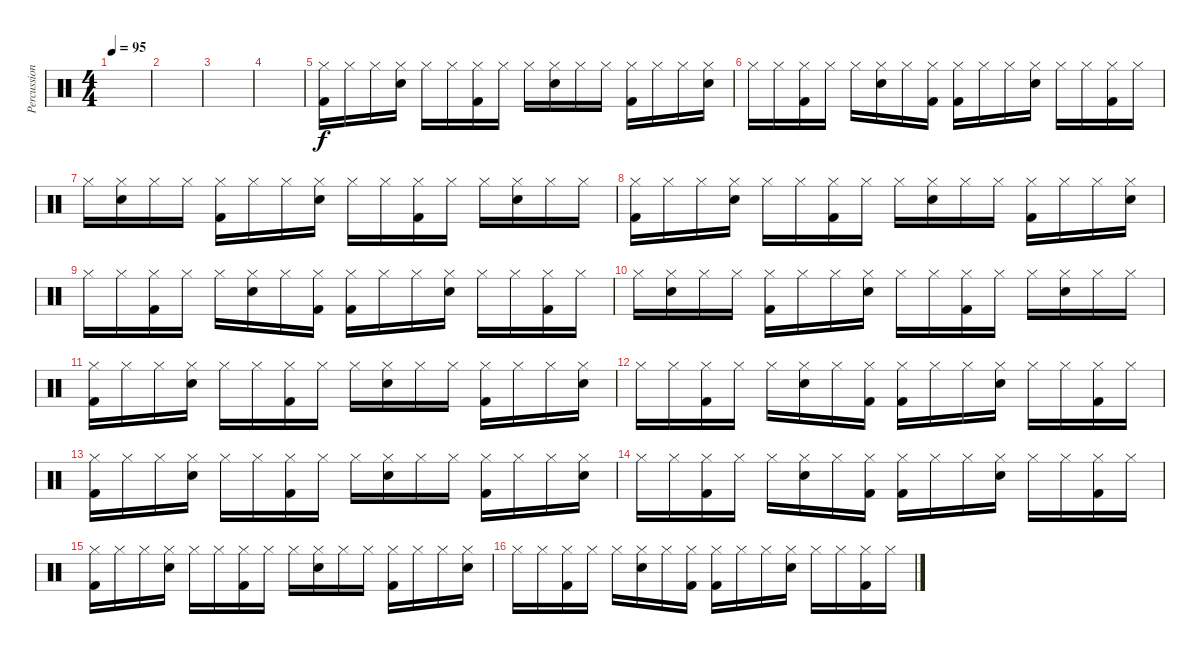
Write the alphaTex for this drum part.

\track ("Percussion" "Percussion") {instrument percussion}
\staff {score}
\articulation defaults
\ts (4 4)
\tempo 95
\clef neutral
\ks c
|
|
|
|
("Hi-Hat (closed)" "Kick (hit) 2").16 "Hi-Hat (closed)".16 "Hi-Hat (closed)".16 ("Hi-Hat (closed)" "Electric Snare (hit)").16 "Hi-Hat (closed)".16 "Hi-Hat (closed)".16 ("Hi-Hat (closed)" "Kick (hit) 2").16 "Hi-Hat (closed)".16 "Hi-Hat (closed)".16 ("Hi-Hat (closed)" "Electric Snare (hit)").16 "Hi-Hat (closed)".16 "Hi-Hat (closed)".16 ("Hi-Hat (closed)" "Kick (hit) 2").16 "Hi-Hat (closed)".16 "Hi-Hat (closed)".16 ("Hi-Hat (closed)" "Electric Snare (hit)").16 |
"Hi-Hat (closed)".16 "Hi-Hat (closed)".16 ("Hi-Hat (closed)" "Kick (hit) 2").16 "Hi-Hat (closed)".16 "Hi-Hat (closed)".16 ("Hi-Hat (closed)" "Electric Snare (hit)").16 "Hi-Hat (closed)".16 ("Hi-Hat (closed)" "Kick (hit) 2").16 ("Hi-Hat (closed)" "Kick (hit) 2").16 "Hi-Hat (closed)".16 "Hi-Hat (closed)".16 ("Hi-Hat (closed)" "Electric Snare (hit)").16 "Hi-Hat (closed)".16 "Hi-Hat (closed)".16 ("Hi-Hat (closed)" "Kick (hit) 2").16 "Hi-Hat (closed)".16 |
"Hi-Hat (closed)".16 ("Hi-Hat (closed)" "Electric Snare (hit)").16 "Hi-Hat (closed)".16 "Hi-Hat (closed)".16 ("Hi-Hat (closed)" "Kick (hit) 2").16 "Hi-Hat (closed)".16 "Hi-Hat (closed)".16 ("Hi-Hat (closed)" "Electric Snare (hit)").16 "Hi-Hat (closed)".16 "Hi-Hat (closed)".16 ("Hi-Hat (closed)" "Kick (hit) 2").16 "Hi-Hat (closed)".16 "Hi-Hat (closed)".16 ("Hi-Hat (closed)" "Electric Snare (hit)").16 "Hi-Hat (closed)".16 "Hi-Hat (closed)".16 |
("Hi-Hat (closed)" "Kick (hit) 2").16 "Hi-Hat (closed)".16 "Hi-Hat (closed)".16 ("Hi-Hat (closed)" "Electric Snare (hit)").16 "Hi-Hat (closed)".16 "Hi-Hat (closed)".16 ("Hi-Hat (closed)" "Kick (hit) 2").16 "Hi-Hat (closed)".16 "Hi-Hat (closed)".16 ("Hi-Hat (closed)" "Electric Snare (hit)").16 "Hi-Hat (closed)".16 "Hi-Hat (closed)".16 ("Hi-Hat (closed)" "Kick (hit) 2").16 "Hi-Hat (closed)".16 "Hi-Hat (closed)".16 ("Hi-Hat (closed)" "Electric Snare (hit)").16 |
"Hi-Hat (closed)".16 "Hi-Hat (closed)".16 ("Hi-Hat (closed)" "Kick (hit) 2").16 "Hi-Hat (closed)".16 "Hi-Hat (closed)".16 ("Hi-Hat (closed)" "Electric Snare (hit)").16 "Hi-Hat (closed)".16 ("Hi-Hat (closed)" "Kick (hit) 2").16 ("Hi-Hat (closed)" "Kick (hit) 2").16 "Hi-Hat (closed)".16 "Hi-Hat (closed)".16 ("Hi-Hat (closed)" "Electric Snare (hit)").16 "Hi-Hat (closed)".16 "Hi-Hat (closed)".16 ("Hi-Hat (closed)" "Kick (hit) 2").16 "Hi-Hat (closed)".16 |
"Hi-Hat (closed)".16 ("Hi-Hat (closed)" "Electric Snare (hit)").16 "Hi-Hat (closed)".16 "Hi-Hat (closed)".16 ("Hi-Hat (closed)" "Kick (hit) 2").16 "Hi-Hat (closed)".16 "Hi-Hat (closed)".16 ("Hi-Hat (closed)" "Electric Snare (hit)").16 "Hi-Hat (closed)".16 "Hi-Hat (closed)".16 ("Hi-Hat (closed)" "Kick (hit) 2").16 "Hi-Hat (closed)".16 "Hi-Hat (closed)".16 ("Hi-Hat (closed)" "Electric Snare (hit)").16 "Hi-Hat (closed)".16 "Hi-Hat (closed)".16 |
("Hi-Hat (closed)" "Kick (hit) 2").16 "Hi-Hat (closed)".16 "Hi-Hat (closed)".16 ("Hi-Hat (closed)" "Electric Snare (hit)").16 "Hi-Hat (closed)".16 "Hi-Hat (closed)".16 ("Hi-Hat (closed)" "Kick (hit) 2").16 "Hi-Hat (closed)".16 "Hi-Hat (closed)".16 ("Hi-Hat (closed)" "Electric Snare (hit)").16 "Hi-Hat (closed)".16 "Hi-Hat (closed)".16 ("Hi-Hat (closed)" "Kick (hit) 2").16 "Hi-Hat (closed)".16 "Hi-Hat (closed)".16 ("Hi-Hat (closed)" "Electric Snare (hit)").16 |
"Hi-Hat (closed)".16 "Hi-Hat (closed)".16 ("Hi-Hat (closed)" "Kick (hit) 2").16 "Hi-Hat (closed)".16 "Hi-Hat (closed)".16 ("Hi-Hat (closed)" "Electric Snare (hit)").16 "Hi-Hat (closed)".16 ("Hi-Hat (closed)" "Kick (hit) 2").16 ("Hi-Hat (closed)" "Kick (hit) 2").16 "Hi-Hat (closed)".16 "Hi-Hat (closed)".16 ("Hi-Hat (closed)" "Electric Snare (hit)").16 "Hi-Hat (closed)".16 "Hi-Hat (closed)".16 ("Hi-Hat (closed)" "Kick (hit) 2").16 "Hi-Hat (closed)".16 |
("Hi-Hat (closed)" "Kick (hit) 2").16 "Hi-Hat (closed)".16 "Hi-Hat (closed)".16 ("Hi-Hat (closed)" "Electric Snare (hit)").16 "Hi-Hat (closed)".16 "Hi-Hat (closed)".16 ("Hi-Hat (closed)" "Kick (hit) 2").16 "Hi-Hat (closed)".16 "Hi-Hat (closed)".16 ("Hi-Hat (closed)" "Electric Snare (hit)").16 "Hi-Hat (closed)".16 "Hi-Hat (closed)".16 ("Hi-Hat (closed)" "Kick (hit) 2").16 "Hi-Hat (closed)".16 "Hi-Hat (closed)".16 ("Hi-Hat (closed)" "Electric Snare (hit)").16 |
"Hi-Hat (closed)".16 "Hi-Hat (closed)".16 ("Hi-Hat (closed)" "Kick (hit) 2").16 "Hi-Hat (closed)".16 "Hi-Hat (closed)".16 ("Hi-Hat (closed)" "Electric Snare (hit)").16 "Hi-Hat (closed)".16 ("Hi-Hat (closed)" "Kick (hit) 2").16 ("Hi-Hat (closed)" "Kick (hit) 2").16 "Hi-Hat (closed)".16 "Hi-Hat (closed)".16 ("Hi-Hat (closed)" "Electric Snare (hit)").16 "Hi-Hat (closed)".16 "Hi-Hat (closed)".16 ("Hi-Hat (closed)" "Kick (hit) 2").16 "Hi-Hat (closed)".16 |
("Hi-Hat (closed)" "Kick (hit) 2").16 "Hi-Hat (closed)".16 "Hi-Hat (closed)".16 ("Hi-Hat (closed)" "Electric Snare (hit)").16 "Hi-Hat (closed)".16 "Hi-Hat (closed)".16 ("Hi-Hat (closed)" "Kick (hit) 2").16 "Hi-Hat (closed)".16 "Hi-Hat (closed)".16 ("Hi-Hat (closed)" "Electric Snare (hit)").16 "Hi-Hat (closed)".16 "Hi-Hat (closed)".16 ("Hi-Hat (closed)" "Kick (hit) 2").16 "Hi-Hat (closed)".16 "Hi-Hat (closed)".16 ("Hi-Hat (closed)" "Electric Snare (hit)").16 |
"Hi-Hat (closed)".16 "Hi-Hat (closed)".16 ("Hi-Hat (closed)" "Kick (hit) 2").16 "Hi-Hat (closed)".16 "Hi-Hat (closed)".16 ("Hi-Hat (closed)" "Electric Snare (hit)").16 "Hi-Hat (closed)".16 ("Hi-Hat (closed)" "Kick (hit) 2").16 ("Hi-Hat (closed)" "Kick (hit) 2").16 "Hi-Hat (closed)".16 "Hi-Hat (closed)".16 ("Hi-Hat (closed)" "Electric Snare (hit)").16 "Hi-Hat (closed)".16 "Hi-Hat (closed)".16 ("Hi-Hat (closed)" "Kick (hit) 2").16 "Hi-Hat (closed)".16
